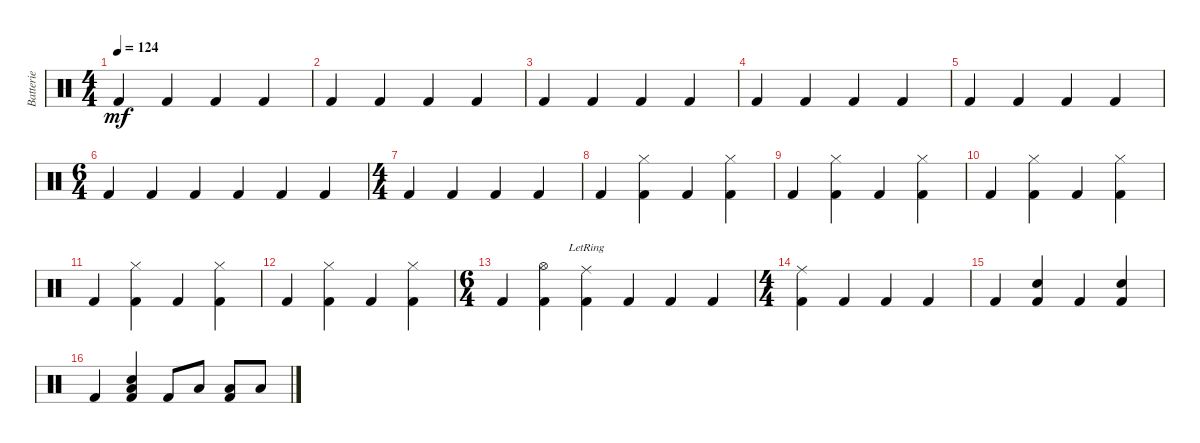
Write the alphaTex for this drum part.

\track ("Batterie" "Batterie") {instrument percussion}
\staff {score}
\articulation defaults
\ts (4 4)
\tempo 124
\clef neutral
\ks c "Kick (hit) 2".4{dy mf} "Kick (hit) 2".4 "Kick (hit) 2".4 "Kick (hit) 2".4
|
"Kick (hit) 2".4 "Kick (hit) 2".4 "Kick (hit) 2".4 "Kick (hit) 2".4 |
"Kick (hit) 2".4 "Kick (hit) 2".4 "Kick (hit) 2".4 "Kick (hit) 2".4 |
"Kick (hit) 2".4 "Kick (hit) 2".4 "Kick (hit) 2".4 "Kick (hit) 2".4 |
"Kick (hit) 2".4 "Kick (hit) 2".4 "Kick (hit) 2".4 "Kick (hit) 2".4 |
\ts (6 4)
"Kick (hit) 2".4 "Kick (hit) 2".4 "Kick (hit) 2".4 "Kick (hit) 2".4 "Kick (hit) 2".4 "Kick (hit) 2".4 |
\ts (4 4)
"Kick (hit) 2".4 "Kick (hit) 2".4 "Kick (hit) 2".4 "Kick (hit) 2".4 |
"Kick (hit) 2".4 ("Hi-Hat (closed)" "Kick (hit) 2").4 "Kick (hit) 2".4 ("Hi-Hat (closed)" "Kick (hit) 2").4 |
"Kick (hit) 2".4 ("Hi-Hat (closed)" "Kick (hit) 2").4 "Kick (hit) 2".4 ("Hi-Hat (closed)" "Kick (hit) 2").4 |
"Kick (hit) 2".4 ("Hi-Hat (closed)" "Kick (hit) 2").4 "Kick (hit) 2".4 ("Hi-Hat (closed)" "Kick (hit) 2").4 |
"Kick (hit) 2".4 ("Hi-Hat (closed)" "Kick (hit) 2").4 "Kick (hit) 2".4 ("Hi-Hat (closed)" "Kick (hit) 2").4 |
"Kick (hit) 2".4 ("Hi-Hat (closed)" "Kick (hit) 2").4 "Kick (hit) 2".4 ("Hi-Hat (closed)" "Kick (hit) 2").4 |
\ts (6 4)
"Kick (hit) 2".4 ("Hi-Hat (open)" "Kick (hit) 2").4 ("Ride (middle)"{lr} "Kick (hit) 2").4 "Kick (hit) 2".4 "Kick (hit) 2".4 "Kick (hit) 2".4 |
\ts (4 4)
("Ride (middle)" "Kick (hit) 2").4 "Kick (hit) 2".4 "Kick (hit) 2".4 "Kick (hit) 2".4 |
"Kick (hit) 2".4 ("Snare (hit) 2" "Kick (hit) 2").4 "Kick (hit) 2".4 ("Snare (hit) 2" "Kick (hit) 2").4 |
"Kick (hit) 2".4 ("Low Floor Tom (hit)" "Snare (hit) 2" "Kick (hit) 2").4 "Kick (hit) 2".8 "Low Tom (hit)".8 ("Low Floor Tom (hit)" "Kick (hit) 2").8 "Low Floor Tom (hit)".8
